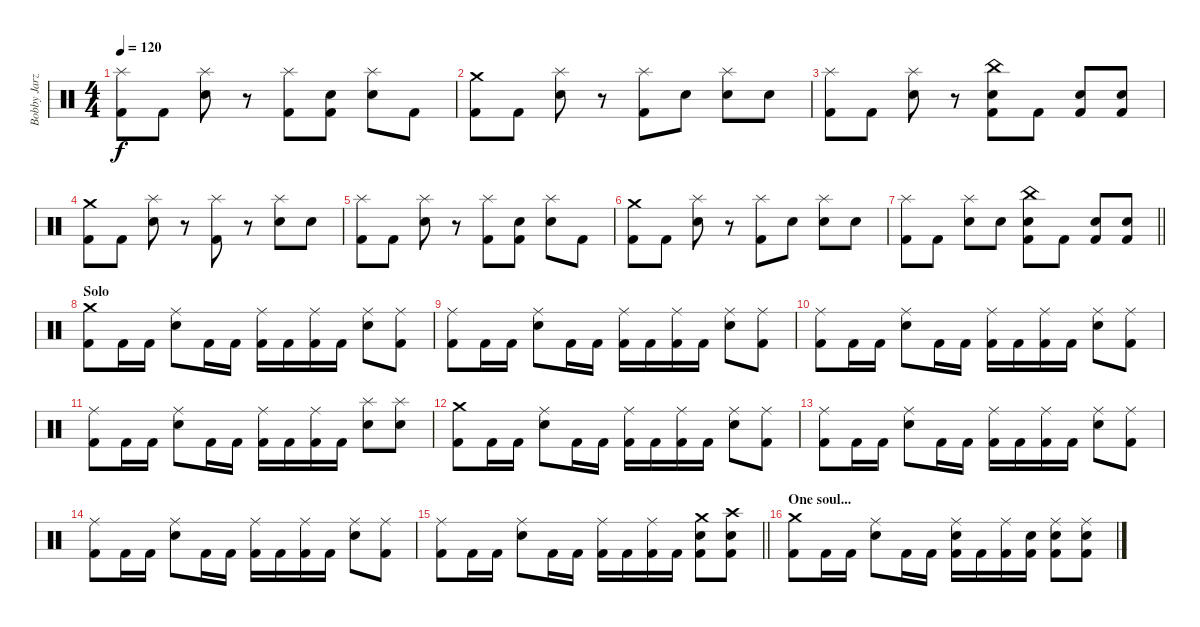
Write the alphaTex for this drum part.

\track ("Bobby Jarzombek - Drums" "Bobby Jarz") {instrument percussion}
\staff {score}
\articulation defaults
\ts (4 4)
\tempo 120
\clef neutral
\ks c
("Splash (hit)" "Kick (hit) 2").8{dy f} "Kick (hit) 2".8 ("Splash (hit)" "Electric Snare (hit)").8 r.8 ("Splash (hit)" "Kick (hit) 2").8 ("Snare (hit)" "Kick (hit) 2").8 ("Splash (hit)" "Electric Snare (hit)").8 "Kick (hit) 2".8 |
("Crash medium (hit)" "Kick (hit) 2").8 "Kick (hit) 2".8 ("Splash (hit)" "Electric Snare (hit)").8 r.8 ("Splash (hit)" "Kick (hit) 2").8 "Snare (hit)".8 ("Splash (hit)" "Electric Snare (hit)").8 "Snare (hit)".8 |
("Splash (hit)" "Kick (hit) 2").8 "Kick (hit) 2".8 ("Splash (hit)" "Electric Snare (hit)").8 r.8 ("China (hit)" "Electric Snare (hit)" "Kick (hit) 2").8 "Kick (hit) 2".8 ("Electric Snare (hit)" "Kick (hit) 2").8 ("Electric Snare (hit)" "Kick (hit) 2").8 |
("Crash medium (hit)" "Kick (hit) 2").8 "Kick (hit) 2".8 ("Splash (hit)" "Electric Snare (hit)").8 r.8 ("Splash (hit)" "Kick (hit) 2").8 r.8 ("Splash (hit)" "Electric Snare (hit)").8 "Snare (hit)".8 |
("Splash (hit)" "Kick (hit) 2").8 "Kick (hit) 2".8 ("Splash (hit)" "Electric Snare (hit)").8 r.8 ("Splash (hit)" "Kick (hit) 2").8 ("Snare (hit)" "Kick (hit) 2").8 ("Splash (hit)" "Electric Snare (hit)").8 "Kick (hit) 2".8 |
("Crash medium (hit)" "Kick (hit) 2").8 "Kick (hit) 2".8 ("Splash (hit)" "Electric Snare (hit)").8 r.8 ("Splash (hit)" "Kick (hit) 2").8 "Snare (hit)".8 ("Splash (hit)" "Electric Snare (hit)").8 "Snare (hit)".8 |
\barLineRight lightlight
("Splash (hit)" "Kick (hit) 2").8 "Kick (hit) 2".8 ("Splash (hit)" "Electric Snare (hit)").8 "Snare (hit)".8 ("China (hit)" "Electric Snare (hit)" "Kick (hit) 2").8 "Kick (hit) 2".8 ("Electric Snare (hit)" "Kick (hit) 2").8 ("Electric Snare (hit)" "Kick (hit) 2").8 |
\section ("" "Solo")
("Crash medium (hit)" "Kick (hit) 2").8 "Kick (hit) 2".16 "Kick (hit) 2".16 ("Ride (middle)" "Electric Snare (hit)").8 "Kick (hit) 2".16 "Kick (hit) 2".16 ("Ride (middle)" "Kick (hit) 2").16 "Kick (hit) 2".16 ("Ride (middle)" "Kick (hit) 2").16 "Kick (hit) 2".16 ("Ride (middle)" "Electric Snare (hit)").8 ("Ride (middle)" "Kick (hit) 2").8 |
("Ride (middle)" "Kick (hit) 2").8 "Kick (hit) 2".16 "Kick (hit) 2".16 ("Ride (middle)" "Electric Snare (hit)").8 "Kick (hit) 2".16 "Kick (hit) 2".16 ("Ride (middle)" "Kick (hit) 2").16 "Kick (hit) 2".16 ("Ride (middle)" "Kick (hit) 2").16 "Kick (hit) 2".16 ("Ride (middle)" "Electric Snare (hit)").8 ("Ride (middle)" "Kick (hit) 2").8 |
("Ride (middle)" "Kick (hit) 2").8 "Kick (hit) 2".16 "Kick (hit) 2".16 ("Ride (middle)" "Electric Snare (hit)").8 "Kick (hit) 2".16 "Kick (hit) 2".16 ("Ride (middle)" "Kick (hit) 2").16 "Kick (hit) 2".16 ("Ride (middle)" "Kick (hit) 2").16 "Kick (hit) 2".16 ("Ride (middle)" "Electric Snare (hit)").8 ("Ride (middle)" "Kick (hit) 2").8 |
("Ride (middle)" "Kick (hit) 2").8 "Kick (hit) 2".16 "Kick (hit) 2".16 ("Ride (middle)" "Electric Snare (hit)").8 "Kick (hit) 2".16 "Kick (hit) 2".16 ("Ride (middle)" "Kick (hit) 2").16 "Kick (hit) 2".16 ("Ride (middle)" "Kick (hit) 2").16 "Kick (hit) 2".16 ("Splash (hit)" "Electric Snare (hit)").8 ("Splash (hit)" "Electric Snare (hit)").8 |
("Crash medium (hit)" "Kick (hit) 2").8 "Kick (hit) 2".16 "Kick (hit) 2".16 ("Ride (middle)" "Electric Snare (hit)").8 "Kick (hit) 2".16 "Kick (hit) 2".16 ("Ride (middle)" "Kick (hit) 2").16 "Kick (hit) 2".16 ("Ride (middle)" "Kick (hit) 2").16 "Kick (hit) 2".16 ("Ride (middle)" "Electric Snare (hit)").8 ("Ride (middle)" "Kick (hit) 2").8 |
("Ride (middle)" "Kick (hit) 2").8 "Kick (hit) 2".16 "Kick (hit) 2".16 ("Ride (middle)" "Electric Snare (hit)").8 "Kick (hit) 2".16 "Kick (hit) 2".16 ("Ride (middle)" "Kick (hit) 2").16 "Kick (hit) 2".16 ("Ride (middle)" "Kick (hit) 2").16 "Kick (hit) 2".16 ("Ride (middle)" "Electric Snare (hit)").8 ("Ride (middle)" "Kick (hit) 2").8 |
("Ride (middle)" "Kick (hit) 2").8 "Kick (hit) 2".16 "Kick (hit) 2".16 ("Ride (middle)" "Electric Snare (hit)").8 "Kick (hit) 2".16 "Kick (hit) 2".16 ("Ride (middle)" "Kick (hit) 2").16 "Kick (hit) 2".16 ("Ride (middle)" "Kick (hit) 2").16 "Kick (hit) 2".16 ("Ride (middle)" "Electric Snare (hit)").8 ("Ride (middle)" "Kick (hit) 2").8 |
\barLineRight lightlight
("Ride (middle)" "Kick (hit) 2").8 "Kick (hit) 2".16 "Kick (hit) 2".16 ("Ride (middle)" "Electric Snare (hit)").8 "Kick (hit) 2".16 "Kick (hit) 2".16 ("Ride (middle)" "Kick (hit) 2").16 "Kick (hit) 2".16 ("Ride (middle)" "Kick (hit) 2").16 "Kick (hit) 2".16 ("Crash medium (hit)" "Electric Snare (hit)" "Kick (hit) 2").8 ("Crash high (hit)" "Electric Snare (hit)" "Kick (hit) 2").8 |
\section ("" "One soul...")
("Crash medium (hit)" "Kick (hit) 2").8 "Kick (hit) 2".16 "Kick (hit) 2".16 ("Ride (middle)" "Electric Snare (hit)").8 "Kick (hit) 2".16 "Kick (hit) 2".16 ("Ride (middle)" "Electric Snare (hit)" "Kick (hit) 2").16 "Kick (hit) 2".16 ("Ride (middle)" "Kick (hit) 2").16 ("Snare (hit)" "Kick (hit) 2").16 ("Ride (middle)" "Electric Snare (hit)" "Kick (hit) 2").8 ("Ride (middle)" "Electric Snare (hit)" "Kick (hit) 2").8
